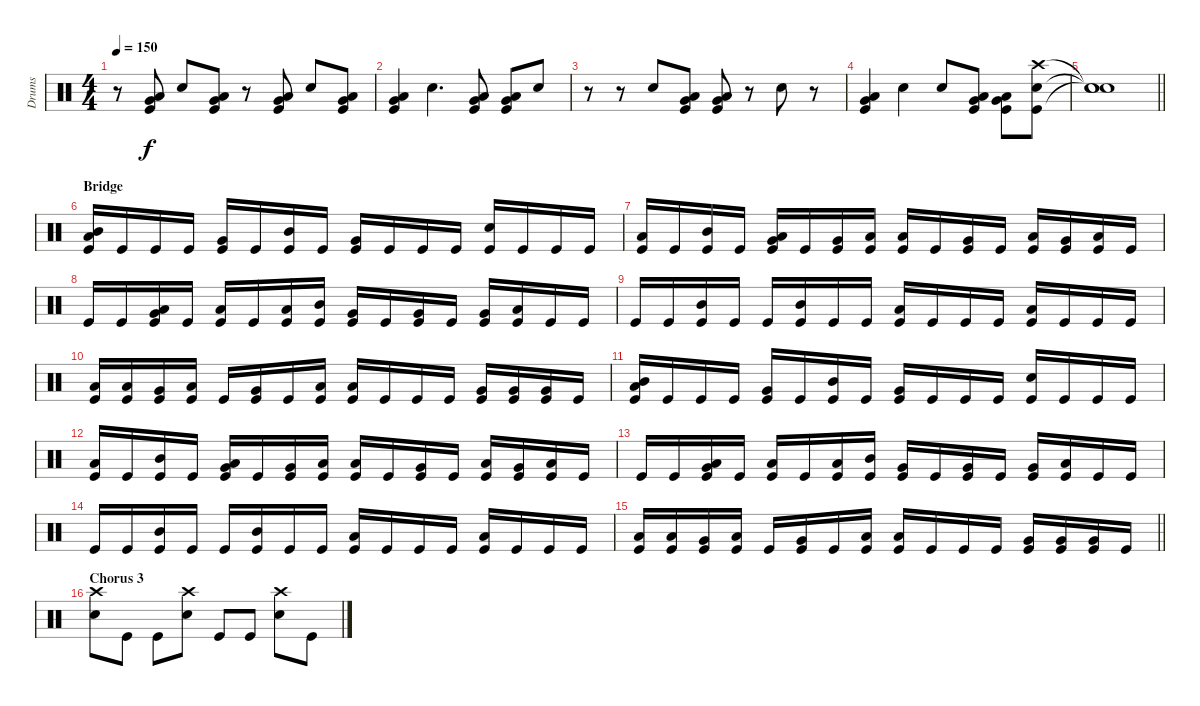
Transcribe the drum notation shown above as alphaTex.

\track ("Drums" "Drums") {instrument percussion}
\staff {score}
\articulation defaults
\ts (4 4)
\tempo 150
\clef neutral
\ks c
r.8{dy f} ("Very Low Tom (hit)" "Low Tom (hit)" "Kick (hit)").8 "Snare (hit) 2".8 ("Very Low Tom (hit)" "Low Tom (hit)" "Kick (hit)").8 r.8 ("Low Tom (hit)" "Very Low Tom (hit)" "Kick (hit)").8 "Snare (hit) 2".8 ("Low Tom (hit)" "Very Low Tom (hit)" "Kick (hit)").8 |
("Kick (hit)" "Very Low Tom (hit)" "Low Tom (hit)").4 "Snare (hit) 2".4{d} ("Low Tom (hit)" "Kick (hit)" "Very Low Tom (hit)").8 ("Low Tom (hit)" "Kick (hit)" "Very Low Tom (hit)").8 "Snare (hit) 2".8 |
r.8 r.8 "Snare (hit) 2".8 ("Kick (hit)" "Low Tom (hit)" "Very Low Tom (hit)").8 ("Kick (hit)" "Low Tom (hit)" "Very Low Tom (hit)").8 r.8 "Snare (hit) 2".8 r.8 |
("Kick (hit)" "Very Low Tom (hit)" "Low Tom (hit)").4 "Snare (hit) 2".4 "Snare (hit) 2".8 ("Low Tom (hit)" "Kick (hit)" "Very Low Tom (hit)").8 ("Low Tom (hit)" "Kick (hit)" "Very Low Tom (hit)").8 ("Crash high (hit)" "Kick (hit)" "Snare (hit) 2").8 |
\barLineRight lightlight
("Snare (hit)"{t} "Snare (hit)"{t} "Snare (hit)"{t}).1 |
\section ("" "Bridge")
("Mid Tom (hit)" "Low Tom (hit)" "Kick (hit)").16 "Kick (hit)".16 "Kick (hit)".16 "Kick (hit)".16 ("Very Low Tom (hit)" "Kick (hit)").16 "Kick (hit)".16 ("Mid Tom (hit)" "Kick (hit)").16 "Kick (hit)".16 ("Very Low Tom (hit)" "Kick (hit)").16 "Kick (hit)".16 "Kick (hit)".16 "Kick (hit)".16 ("Snare (hit) 2" "Kick (hit)").16 "Kick (hit)".16 "Kick (hit)".16 "Kick (hit)".16 |
("Low Tom (hit)" "Kick (hit)").16 "Kick (hit)".16 ("Mid Tom (hit)" "Kick (hit)").16 "Kick (hit)".16 ("Low Floor Tom (hit)" "Very Low Tom (hit)" "Kick (hit)").16 "Kick (hit)".16 ("Very Low Tom (hit)" "Kick (hit)").16 ("Low Floor Tom (hit)" "Kick (hit)").16 ("Low Tom (hit)" "Kick (hit)").16 "Kick (hit)".16 ("Very Low Tom (hit)" "Kick (hit)").16 "Kick (hit)".16 ("Low Tom (hit)" "Kick (hit)").16 ("Very Low Tom (hit)" "Kick (hit)").16 ("Low Floor Tom (hit)" "Kick (hit)").16 "Kick (hit)".16 |
"Kick (hit)".16 "Kick (hit)".16 ("Very Low Tom (hit)" "Low Tom (hit)" "Kick (hit)").16 "Kick (hit)".16 ("Low Tom (hit)" "Kick (hit)").16 "Kick (hit)".16 ("Low Tom (hit)" "Kick (hit)").16 ("Mid Tom (hit)" "Kick (hit)").16 ("Very Low Tom (hit)" "Kick (hit)").16 "Kick (hit)".16 ("Very Low Tom (hit)" "Kick (hit)").16 "Kick (hit)".16 ("Very Low Tom (hit)" "Kick (hit)").16 ("Low Floor Tom (hit)" "Kick (hit)").16 "Kick (hit)".16 "Kick (hit)".16 |
"Kick (hit)".16 "Kick (hit)".16 ("Mid Tom (hit)" "Kick (hit)").16 "Kick (hit)".16 "Kick (hit)".16 ("Mid Tom (hit)" "Kick (hit)").16 "Kick (hit)".16 "Kick (hit)".16 ("Low Tom (hit)" "Kick (hit)").16 "Kick (hit)".16 "Kick (hit)".16 "Kick (hit)".16 ("Low Tom (hit)" "Kick (hit)").16 "Kick (hit)".16 "Kick (hit)".16 "Kick (hit)".16 |
("Low Tom (hit)" "Kick (hit)").16 ("Low Tom (hit)" "Kick (hit)").16 ("Very Low Tom (hit)" "Kick (hit)").16 ("Low Floor Tom (hit)" "Kick (hit)").16 "Kick (hit)".16 ("Very Low Tom (hit)" "Kick (hit)").16 "Kick (hit)".16 ("Low Floor Tom (hit)" "Kick (hit)").16 ("Low Floor Tom (hit)" "Kick (hit)").16 "Kick (hit)".16 "Kick (hit)".16 "Kick (hit)".16 ("Very Low Tom (hit)" "Kick (hit)").16 ("Very Low Tom (hit)" "Kick (hit)").16 ("Very Low Tom (hit)" "Kick (hit)").16 "Kick (hit)".16 |
("Mid Tom (hit)" "Low Tom (hit)" "Kick (hit)").16 "Kick (hit)".16 "Kick (hit)".16 "Kick (hit)".16 ("Very Low Tom (hit)" "Kick (hit)").16 "Kick (hit)".16 ("Mid Tom (hit)" "Kick (hit)").16 "Kick (hit)".16 ("Very Low Tom (hit)" "Kick (hit)").16 "Kick (hit)".16 "Kick (hit)".16 "Kick (hit)".16 ("Snare (hit) 2" "Kick (hit)").16 "Kick (hit)".16 "Kick (hit)".16 "Kick (hit)".16 |
("Low Tom (hit)" "Kick (hit)").16 "Kick (hit)".16 ("Mid Tom (hit)" "Kick (hit)").16 "Kick (hit)".16 ("Low Floor Tom (hit)" "Very Low Tom (hit)" "Kick (hit)").16 "Kick (hit)".16 ("Very Low Tom (hit)" "Kick (hit)").16 ("Low Floor Tom (hit)" "Kick (hit)").16 ("Low Tom (hit)" "Kick (hit)").16 "Kick (hit)".16 ("Very Low Tom (hit)" "Kick (hit)").16 "Kick (hit)".16 ("Low Tom (hit)" "Kick (hit)").16 ("Very Low Tom (hit)" "Kick (hit)").16 ("Low Floor Tom (hit)" "Kick (hit)").16 "Kick (hit)".16 |
"Kick (hit)".16 "Kick (hit)".16 ("Very Low Tom (hit)" "Low Tom (hit)" "Kick (hit)").16 "Kick (hit)".16 ("Low Tom (hit)" "Kick (hit)").16 "Kick (hit)".16 ("Low Tom (hit)" "Kick (hit)").16 ("Mid Tom (hit)" "Kick (hit)").16 ("Very Low Tom (hit)" "Kick (hit)").16 "Kick (hit)".16 ("Very Low Tom (hit)" "Kick (hit)").16 "Kick (hit)".16 ("Very Low Tom (hit)" "Kick (hit)").16 ("Low Floor Tom (hit)" "Kick (hit)").16 "Kick (hit)".16 "Kick (hit)".16 |
"Kick (hit)".16 "Kick (hit)".16 ("Mid Tom (hit)" "Kick (hit)").16 "Kick (hit)".16 "Kick (hit)".16 ("Mid Tom (hit)" "Kick (hit)").16 "Kick (hit)".16 "Kick (hit)".16 ("Low Tom (hit)" "Kick (hit)").16 "Kick (hit)".16 "Kick (hit)".16 "Kick (hit)".16 ("Low Tom (hit)" "Kick (hit)").16 "Kick (hit)".16 "Kick (hit)".16 "Kick (hit)".16 |
\barLineRight lightlight
("Low Tom (hit)" "Kick (hit)").16 ("Low Tom (hit)" "Kick (hit)").16 ("Very Low Tom (hit)" "Kick (hit)").16 ("Low Floor Tom (hit)" "Kick (hit)").16 "Kick (hit)".16 ("Very Low Tom (hit)" "Kick (hit)").16 "Kick (hit)".16 ("Low Floor Tom (hit)" "Kick (hit)").16 ("Low Floor Tom (hit)" "Kick (hit)").16 "Kick (hit)".16 "Kick (hit)".16 "Kick (hit)".16 ("Very Low Tom (hit)" "Kick (hit)").16 ("Very Low Tom (hit)" "Kick (hit)").16 ("Very Low Tom (hit)" "Kick (hit)").16 "Kick (hit)".16 |
\section ("" "Chorus 3")
("Crash high (hit)" "Snare (hit) 2").8 "Kick (hit)".8 "Kick (hit)".8 ("Snare (hit) 2" "Crash high (hit)").8 "Kick (hit)".8 "Kick (hit)".8 ("Crash high (hit)" "Snare (hit) 2").8 "Kick (hit)".8
